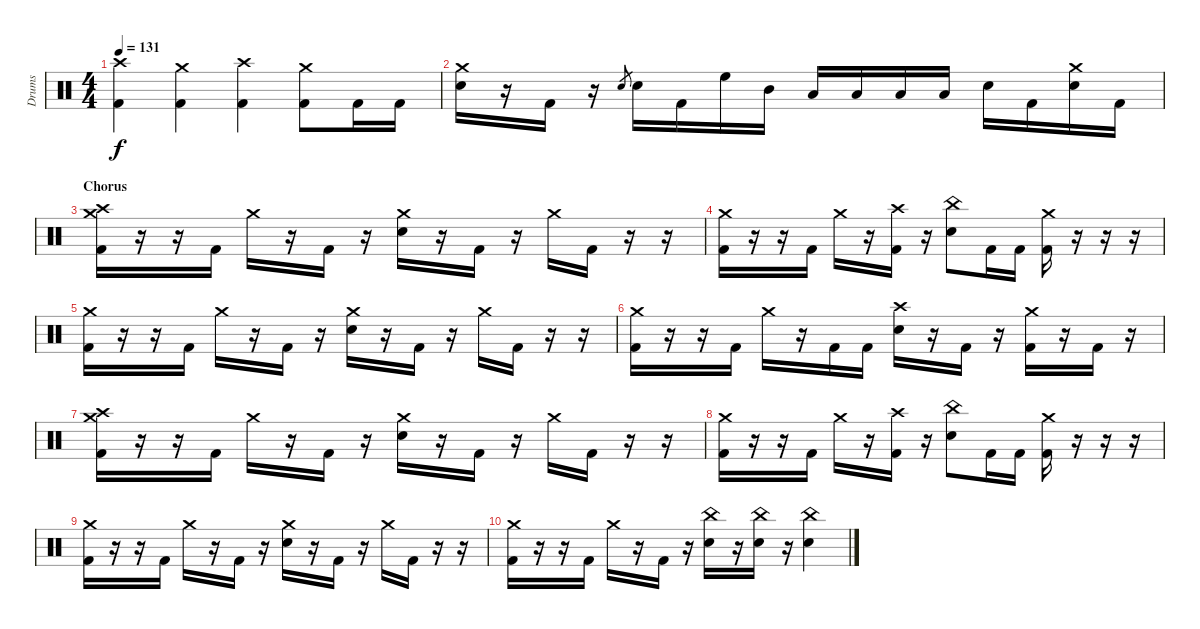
\track ("Drums" "Drums") {instrument percussion}
\staff {score}
\articulation defaults
\ts (4 4)
\tempo 131
\clef neutral
\ks c
("Crash high (hit)" "Kick (hit) 2").4{dy f} ("Crash medium (hit)" "Kick (hit) 2").4 ("Crash high (hit)" "Kick (hit) 2").4 ("Crash medium (hit)" "Kick (hit) 2").8 "Kick (hit) 2".16 "Kick (hit) 2".16 |
("Crash medium (hit)" "Electric Snare (hit)").16 r.16 "Kick (hit) 2".16 r.16 "Electric Snare (hit)".8{gr} "Electric Snare (hit)".16 "Kick (hit) 2".16 "High Floor Tom (hit)".16 "Mid Tom (hit)".16 "Low Tom (hit)".16 "Low Tom (hit)".16 "Low Tom (hit)".16 "Low Tom (hit)".16 "Electric Snare (hit)".16 "Kick (hit) 2".16 ("Crash medium (hit)" "Electric Snare (hit)").16 "Kick (hit) 2".16 |
\section ("" "Chorus")
("Crash medium (hit)" "Crash high (hit)" "Kick (hit) 2").16 r.16 r.16 "Kick (hit) 2".16 "Crash medium (hit)".16 r.16 "Kick (hit) 2".16 r.16 ("Crash medium (hit)" "Electric Snare (hit)").16 r.16 "Kick (hit) 2".16 r.16 "Crash medium (hit)".16 "Kick (hit) 2".16 r.16 r.16 |
("Crash medium (hit)" "Kick (hit) 2").16 r.16 r.16 "Kick (hit) 2".16 "Crash medium (hit)".16 r.16 ("Crash high (hit)" "Kick (hit) 2").16 r.16 ("China (hit)" "Electric Snare (hit)").8 "Kick (hit) 2".16 "Kick (hit) 2".16 ("Crash medium (hit)" "Kick (hit) 2").16 r.16 r.16 r.16 |
("Crash medium (hit)" "Kick (hit) 2").16 r.16 r.16 "Kick (hit) 2".16 "Crash medium (hit)".16 r.16 "Kick (hit) 2".16 r.16 ("Crash medium (hit)" "Electric Snare (hit)").16 r.16 "Kick (hit) 2".16 r.16 "Crash medium (hit)".16 "Kick (hit) 2".16 r.16 r.16 |
("Crash medium (hit)" "Kick (hit) 2").16 r.16 r.16 "Kick (hit) 2".16 "Crash medium (hit)".16 r.16 "Kick (hit) 2".16 "Kick (hit) 2".16 ("Crash high (hit)" "Electric Snare (hit)").16 r.16 "Kick (hit) 2".16 r.16 ("Crash medium (hit)" "Kick (hit) 2").16 r.16 "Kick (hit) 2".16 r.16 |
("Crash medium (hit)" "Crash high (hit)" "Kick (hit) 2").16 r.16 r.16 "Kick (hit) 2".16 "Crash medium (hit)".16 r.16 "Kick (hit) 2".16 r.16 ("Crash medium (hit)" "Electric Snare (hit)").16 r.16 "Kick (hit) 2".16 r.16 "Crash medium (hit)".16 "Kick (hit) 2".16 r.16 r.16 |
("Crash medium (hit)" "Kick (hit) 2").16 r.16 r.16 "Kick (hit) 2".16 "Crash medium (hit)".16 r.16 ("Crash high (hit)" "Kick (hit) 2").16 r.16 ("China (hit)" "Electric Snare (hit)").8 "Kick (hit) 2".16 "Kick (hit) 2".16 ("Crash medium (hit)" "Kick (hit) 2").16 r.16 r.16 r.16 |
("Crash medium (hit)" "Kick (hit) 2").16 r.16 r.16 "Kick (hit) 2".16 "Crash medium (hit)".16 r.16 "Kick (hit) 2".16 r.16 ("Crash medium (hit)" "Electric Snare (hit)").16 r.16 "Kick (hit) 2".16 r.16 "Crash medium (hit)".16 "Kick (hit) 2".16 r.16 r.16 |
("Crash medium (hit)" "Kick (hit) 2").16 r.16 r.16 "Kick (hit) 2".16 "Crash medium (hit)".16 r.16 "Kick (hit) 2".16 r.16 ("China (hit)" "Electric Snare (hit)").16 r.16 ("China (hit)" "Electric Snare (hit)").16 r.16 ("China (hit)" "Electric Snare (hit)").4
